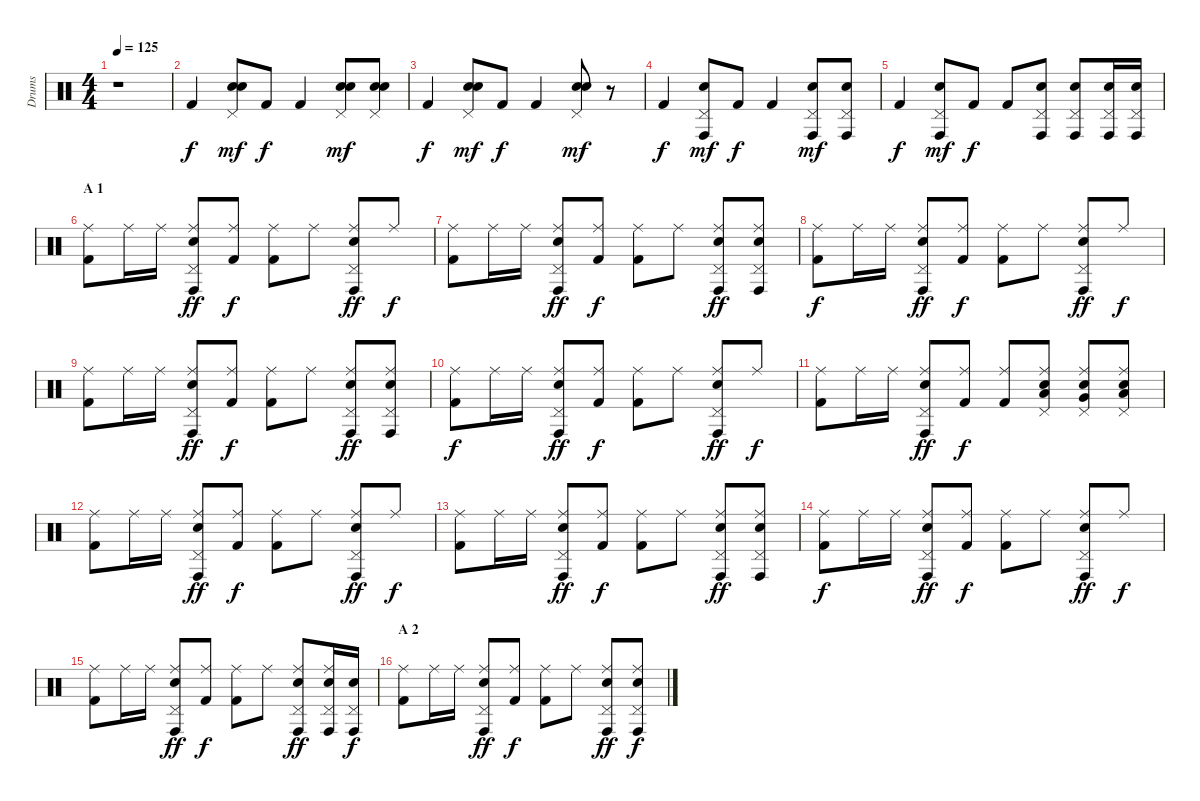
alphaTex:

\track ("Drums" "Drums") {instrument percussion}
\staff {score}
\articulation defaults
\ts (4 4)
\tempo 125
\clef neutral
\ks c
r.1{dy f} |
"Kick (hit) 2".4 ("Pedal Hi-Hat (hit)" "Snare (hit) 2" "Electric Snare (hit)").8{dy mf} "Kick (hit) 2".8{dy f} "Kick (hit) 2".4 ("Pedal Hi-Hat (hit)" "Snare (hit) 2" "Electric Snare (hit)").8{dy mf} ("Pedal Hi-Hat (hit)" "Snare (hit) 2" "Electric Snare (hit)").8 |
"Kick (hit) 2".4{dy f} ("Pedal Hi-Hat (hit)" "Snare (hit) 2" "Electric Snare (hit)").8{dy mf} "Kick (hit) 2".8{dy f} "Kick (hit) 2".4 ("Pedal Hi-Hat (hit)" "Snare (hit) 2" "Electric Snare (hit)").8{dy mf} r.8 |
"Kick (hit) 2".4{dy f} ("Pedal Hi-Hat (hit)" "Conga high (hit)" "Electric Snare (hit)").8{dy mf} "Kick (hit) 2".8{dy f} "Kick (hit) 2".4 ("Pedal Hi-Hat (hit)" "Conga high (hit)" "Electric Snare (hit)").8{dy mf} ("Pedal Hi-Hat (hit)" "Conga high (hit)" "Electric Snare (hit)").8 |
"Kick (hit) 2".4{dy f} ("Pedal Hi-Hat (hit)" "Conga high (hit)" "Electric Snare (hit)").8{dy mf} "Kick (hit) 2".8{dy f} "Kick (hit) 2".8 ("Pedal Hi-Hat (hit)" "Conga high (hit)" "Electric Snare (hit)").8 ("Pedal Hi-Hat (hit)" "Conga high (hit)" "Electric Snare (hit)").8 ("Pedal Hi-Hat (hit)" "Conga high (hit)" "Electric Snare (hit)").16 ("Pedal Hi-Hat (hit)" "Conga high (hit)" "Electric Snare (hit)").16 |
\section ("" "A 1")
("Ride (middle)" "Kick (hit) 2").8 "Ride (middle)".16 "Ride (middle)".16 ("Ride (middle)" "Pedal Hi-Hat (hit)" "Conga high (hit)" "Electric Snare (hit)").8{dy ff} ("Ride (middle)" "Kick (hit) 2").8{dy f} ("Ride (middle)" "Kick (hit) 2").8 "Ride (middle)".8 ("Ride (middle)" "Pedal Hi-Hat (hit)" "Conga high (hit)" "Electric Snare (hit)").8{dy ff} "Ride (middle)".8{dy f} |
("Ride (middle)" "Kick (hit) 2").8 "Ride (middle)".16 "Ride (middle)".16 ("Ride (middle)" "Pedal Hi-Hat (hit)" "Conga high (hit)" "Electric Snare (hit)").8{dy ff} ("Ride (middle)" "Kick (hit) 2").8{dy f} ("Ride (middle)" "Kick (hit) 2").8 "Ride (middle)".8 ("Ride (middle)" "Pedal Hi-Hat (hit)" "Conga high (hit)" "Electric Snare (hit)").8{dy ff} ("Ride (middle)" "Pedal Hi-Hat (hit)" "Conga high (hit)" "Electric Snare (hit)").8 |
("Ride (middle)" "Kick (hit) 2").8{dy f} "Ride (middle)".16 "Ride (middle)".16 ("Ride (middle)" "Pedal Hi-Hat (hit)" "Conga high (hit)" "Electric Snare (hit)").8{dy ff} ("Ride (middle)" "Kick (hit) 2").8{dy f} ("Ride (middle)" "Kick (hit) 2").8 "Ride (middle)".8 ("Ride (middle)" "Pedal Hi-Hat (hit)" "Conga high (hit)" "Electric Snare (hit)").8{dy ff} "Ride (middle)".8{dy f} |
("Ride (middle)" "Kick (hit) 2").8 "Ride (middle)".16 "Ride (middle)".16 ("Ride (middle)" "Pedal Hi-Hat (hit)" "Conga high (hit)" "Electric Snare (hit)").8{dy ff} ("Ride (middle)" "Kick (hit) 2").8{dy f} ("Ride (middle)" "Kick (hit) 2").8 "Ride (middle)".8 ("Ride (middle)" "Pedal Hi-Hat (hit)" "Conga high (hit)" "Electric Snare (hit)").8{dy ff} ("Ride (middle)" "Pedal Hi-Hat (hit)" "Conga high (hit)" "Electric Snare (hit)").8 |
("Ride (middle)" "Kick (hit) 2").8{dy f} "Ride (middle)".16 "Ride (middle)".16 ("Ride (middle)" "Pedal Hi-Hat (hit)" "Conga high (hit)" "Electric Snare (hit)").8{dy ff} ("Ride (middle)" "Kick (hit) 2").8{dy f} ("Ride (middle)" "Kick (hit) 2").8 "Ride (middle)".8 ("Ride (middle)" "Pedal Hi-Hat (hit)" "Conga high (hit)" "Electric Snare (hit)").8{dy ff} "Ride (middle)".8{dy f} |
("Ride (middle)" "Kick (hit) 2").8 "Ride (middle)".16 "Ride (middle)".16 ("Ride (middle)" "Pedal Hi-Hat (hit)" "Conga high (hit)" "Electric Snare (hit)").8{dy ff} ("Ride (middle)" "Kick (hit) 2").8{dy f} ("Ride (middle)" "Kick (hit) 2").8 ("Ride (middle)" "Pedal Hi-Hat (hit)" "Low Tom (hit)" "Electric Snare (hit)").8 ("Ride (middle)" "Pedal Hi-Hat (hit)" "Very Low Tom (hit)" "Electric Snare (hit)").8 ("Ride (middle)" "Pedal Hi-Hat (hit)" "Low Floor Tom (hit)" "Electric Snare (hit)").8 |
("Ride (middle)" "Kick (hit) 2").8 "Ride (middle)".16 "Ride (middle)".16 ("Ride (middle)" "Pedal Hi-Hat (hit)" "Conga high (hit)" "Electric Snare (hit)").8{dy ff} ("Ride (middle)" "Kick (hit) 2").8{dy f} ("Ride (middle)" "Kick (hit) 2").8 "Ride (middle)".8 ("Ride (middle)" "Pedal Hi-Hat (hit)" "Conga high (hit)" "Electric Snare (hit)").8{dy ff} "Ride (middle)".8{dy f} |
("Ride (middle)" "Kick (hit) 2").8 "Ride (middle)".16 "Ride (middle)".16 ("Ride (middle)" "Pedal Hi-Hat (hit)" "Conga high (hit)" "Electric Snare (hit)").8{dy ff} ("Ride (middle)" "Kick (hit) 2").8{dy f} ("Ride (middle)" "Kick (hit) 2").8 "Ride (middle)".8 ("Ride (middle)" "Pedal Hi-Hat (hit)" "Conga high (hit)" "Electric Snare (hit)").8{dy ff} ("Ride (middle)" "Pedal Hi-Hat (hit)" "Conga high (hit)" "Electric Snare (hit)").8 |
("Ride (middle)" "Kick (hit) 2").8{dy f} "Ride (middle)".16 "Ride (middle)".16 ("Ride (middle)" "Pedal Hi-Hat (hit)" "Conga high (hit)" "Electric Snare (hit)").8{dy ff} ("Ride (middle)" "Kick (hit) 2").8{dy f} ("Ride (middle)" "Kick (hit) 2").8 "Ride (middle)".8 ("Ride (middle)" "Pedal Hi-Hat (hit)" "Conga high (hit)" "Electric Snare (hit)").8{dy ff} "Ride (middle)".8{dy f} |
("Ride (middle)" "Kick (hit) 2").8 "Ride (middle)".16 "Ride (middle)".16 ("Ride (middle)" "Pedal Hi-Hat (hit)" "Conga high (hit)" "Electric Snare (hit)").8{dy ff} ("Ride (middle)" "Kick (hit) 2").8{dy f} ("Ride (middle)" "Kick (hit) 2").8 "Ride (middle)".8 ("Ride (middle)" "Pedal Hi-Hat (hit)" "Conga high (hit)" "Electric Snare (hit)").8{dy ff} ("Ride (middle)" "Pedal Hi-Hat (hit)" "Conga high (hit)" "Electric Snare (hit)").16 ("Pedal Hi-Hat (hit)" "Conga high (hit)" "Electric Snare (hit)").16{dy f} |
\section ("" "A 2")
("Ride (middle)" "Kick (hit) 2").8 "Ride (middle)".16 "Ride (middle)".16 ("Ride (middle)" "Pedal Hi-Hat (hit)" "Conga high (hit)" "Electric Snare (hit)").8{dy ff} ("Ride (middle)" "Kick (hit) 2").8{dy f} ("Ride (middle)" "Kick (hit) 2").8 "Ride (middle)".8 ("Ride (middle)" "Pedal Hi-Hat (hit)" "Conga high (hit)" "Electric Snare (hit)").8{dy ff} ("Ride (middle)" "Pedal Hi-Hat (hit)" "Conga high (hit)" "Electric Snare (hit)").8{dy f}
